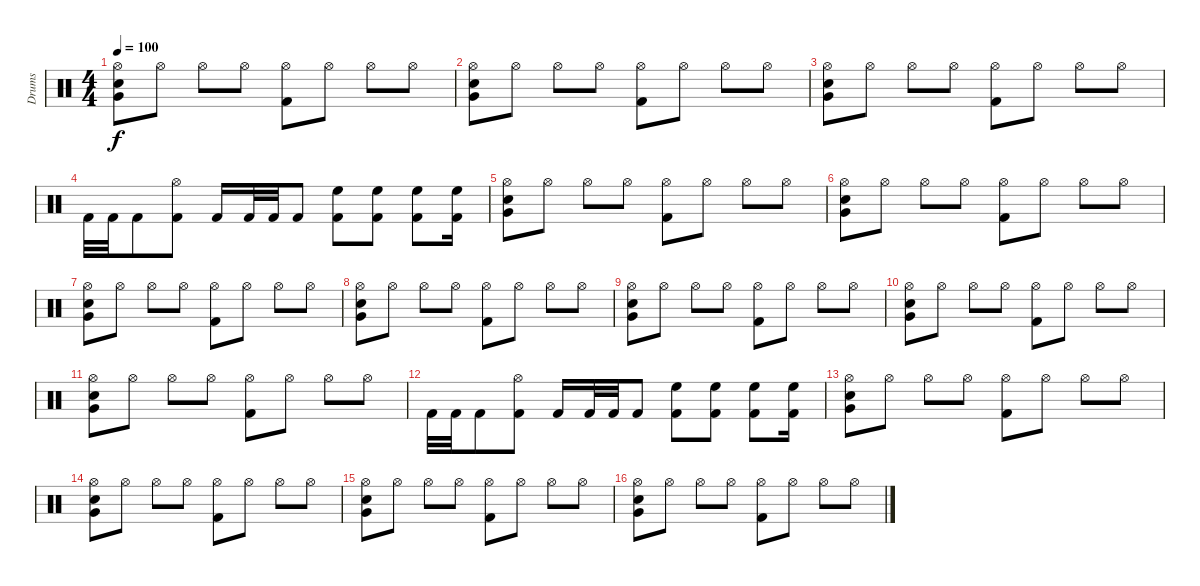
\track ("Drums" "Drums") {instrument percussion}
\staff {score}
\articulation defaults
\ts (4 4)
\tempo 100
\clef neutral
\ks c
("Hi-Hat (open)" "Snare (hit) 2" "Very Low Tom (hit)").8{dy f} "Hi-Hat (open)".8 "Hi-Hat (open)".8 "Hi-Hat (open)".8 ("Hi-Hat (open)" "Kick (hit) 2").8 "Hi-Hat (open)".8 "Hi-Hat (open)".8 "Hi-Hat (open)".8 |
("Hi-Hat (open)" "Snare (hit) 2" "Very Low Tom (hit)").8 "Hi-Hat (open)".8 "Hi-Hat (open)".8 "Hi-Hat (open)".8 ("Hi-Hat (open)" "Kick (hit) 2").8 "Hi-Hat (open)".8 "Hi-Hat (open)".8 "Hi-Hat (open)".8 |
("Hi-Hat (open)" "Snare (hit) 2" "Very Low Tom (hit)").8 "Hi-Hat (open)".8 "Hi-Hat (open)".8 "Hi-Hat (open)".8 ("Hi-Hat (open)" "Kick (hit) 2").8 "Hi-Hat (open)".8 "Hi-Hat (open)".8 "Hi-Hat (open)".8 |
"Kick (hit) 2".32 "Kick (hit) 2".32 "Kick (hit) 2".8 ("Hi-Hat (open)" "Kick (hit) 2").8 "Kick (hit) 2".16 "Kick (hit) 2".32 "Kick (hit) 2".32 "Kick (hit) 2".8 ("High Floor Tom (hit)" "Kick (hit) 2").8 ("High Floor Tom (hit)" "Kick (hit) 2").8 ("High Floor Tom (hit)" "Kick (hit) 2").8 ("High Floor Tom (hit)" "Kick (hit) 2").16 |
("Hi-Hat (open)" "Snare (hit) 2" "Very Low Tom (hit)").8 "Hi-Hat (open)".8 "Hi-Hat (open)".8 "Hi-Hat (open)".8 ("Hi-Hat (open)" "Kick (hit) 2").8 "Hi-Hat (open)".8 "Hi-Hat (open)".8 "Hi-Hat (open)".8 |
("Hi-Hat (open)" "Snare (hit) 2" "Very Low Tom (hit)").8 "Hi-Hat (open)".8 "Hi-Hat (open)".8 "Hi-Hat (open)".8 ("Hi-Hat (open)" "Kick (hit) 2").8 "Hi-Hat (open)".8 "Hi-Hat (open)".8 "Hi-Hat (open)".8 |
("Hi-Hat (open)" "Snare (hit) 2" "Very Low Tom (hit)").8 "Hi-Hat (open)".8 "Hi-Hat (open)".8 "Hi-Hat (open)".8 ("Hi-Hat (open)" "Kick (hit) 2").8 "Hi-Hat (open)".8 "Hi-Hat (open)".8 "Hi-Hat (open)".8 |
("Hi-Hat (open)" "Snare (hit) 2" "Very Low Tom (hit)").8 "Hi-Hat (open)".8 "Hi-Hat (open)".8 "Hi-Hat (open)".8 ("Hi-Hat (open)" "Kick (hit) 2").8 "Hi-Hat (open)".8 "Hi-Hat (open)".8 "Hi-Hat (open)".8 |
("Hi-Hat (open)" "Snare (hit) 2" "Very Low Tom (hit)").8 "Hi-Hat (open)".8 "Hi-Hat (open)".8 "Hi-Hat (open)".8 ("Hi-Hat (open)" "Kick (hit) 2").8 "Hi-Hat (open)".8 "Hi-Hat (open)".8 "Hi-Hat (open)".8 |
("Hi-Hat (open)" "Snare (hit) 2" "Very Low Tom (hit)").8 "Hi-Hat (open)".8 "Hi-Hat (open)".8 "Hi-Hat (open)".8 ("Hi-Hat (open)" "Kick (hit) 2").8 "Hi-Hat (open)".8 "Hi-Hat (open)".8 "Hi-Hat (open)".8 |
("Hi-Hat (open)" "Snare (hit) 2" "Very Low Tom (hit)").8 "Hi-Hat (open)".8 "Hi-Hat (open)".8 "Hi-Hat (open)".8 ("Hi-Hat (open)" "Kick (hit) 2").8 "Hi-Hat (open)".8 "Hi-Hat (open)".8 "Hi-Hat (open)".8 |
"Kick (hit) 2".32 "Kick (hit) 2".32 "Kick (hit) 2".8 ("Hi-Hat (open)" "Kick (hit) 2").8 "Kick (hit) 2".16 "Kick (hit) 2".32 "Kick (hit) 2".32 "Kick (hit) 2".8 ("High Floor Tom (hit)" "Kick (hit) 2").8 ("High Floor Tom (hit)" "Kick (hit) 2").8 ("High Floor Tom (hit)" "Kick (hit) 2").8 ("High Floor Tom (hit)" "Kick (hit) 2").16 |
("Hi-Hat (open)" "Snare (hit) 2" "Very Low Tom (hit)").8 "Hi-Hat (open)".8 "Hi-Hat (open)".8 "Hi-Hat (open)".8 ("Hi-Hat (open)" "Kick (hit) 2").8 "Hi-Hat (open)".8 "Hi-Hat (open)".8 "Hi-Hat (open)".8 |
("Hi-Hat (open)" "Snare (hit) 2" "Very Low Tom (hit)").8 "Hi-Hat (open)".8 "Hi-Hat (open)".8 "Hi-Hat (open)".8 ("Hi-Hat (open)" "Kick (hit) 2").8 "Hi-Hat (open)".8 "Hi-Hat (open)".8 "Hi-Hat (open)".8 |
("Hi-Hat (open)" "Snare (hit) 2" "Very Low Tom (hit)").8 "Hi-Hat (open)".8 "Hi-Hat (open)".8 "Hi-Hat (open)".8 ("Hi-Hat (open)" "Kick (hit) 2").8 "Hi-Hat (open)".8 "Hi-Hat (open)".8 "Hi-Hat (open)".8 |
("Hi-Hat (open)" "Snare (hit) 2" "Very Low Tom (hit)").8 "Hi-Hat (open)".8 "Hi-Hat (open)".8 "Hi-Hat (open)".8 ("Hi-Hat (open)" "Kick (hit) 2").8 "Hi-Hat (open)".8 "Hi-Hat (open)".8 "Hi-Hat (open)".8
